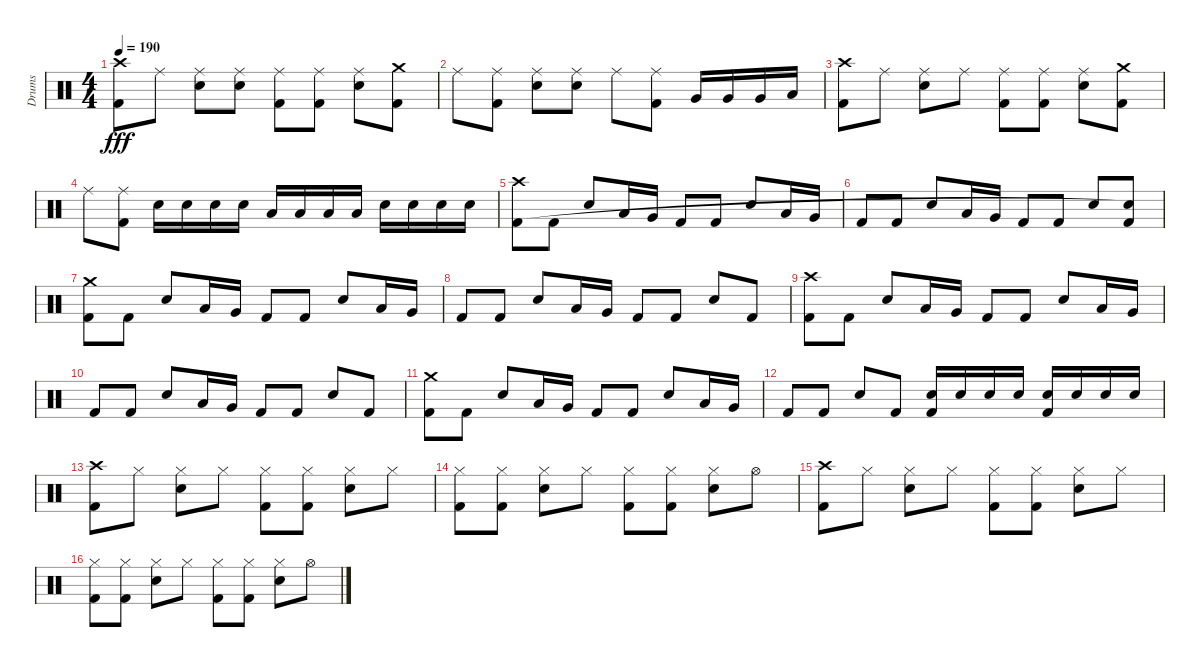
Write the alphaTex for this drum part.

\track ("Drums" "Drums") {instrument percussion}
\staff {score}
\articulation defaults
\ts (4 4)
\tempo 190
\clef neutral
\ks c
("Crash high (hit)" "Kick (hit) 2").8{dy fff} "Ride (middle)".8 ("Ride (middle)" "Electric Snare (hit)").8 ("Ride (middle)" "Electric Snare (hit)").8 ("Ride (middle)" "Kick (hit) 2").8 ("Ride (middle)" "Kick (hit) 2").8 ("Ride (middle)" "Electric Snare (hit)").8 ("Crash medium (hit)" "Kick (hit) 2").8 |
"Ride (middle)".8 ("Ride (middle)" "Kick (hit) 2").8 ("Ride (middle)" "Electric Snare (hit)").8 ("Ride (middle)" "Electric Snare (hit)").8 "Ride (middle)".8 ("Ride (middle)" "Kick (hit) 2").8 "Very Low Tom (hit)".16 "Very Low Tom (hit)".16 "Very Low Tom (hit)".16 "Low Floor Tom (hit)".16 |
("Crash high (hit)" "Kick (hit) 2").8 "Ride (middle)".8 ("Ride (middle)" "Electric Snare (hit)").8 "Ride (middle)".8 ("Ride (middle)" "Kick (hit) 2").8 ("Ride (middle)" "Kick (hit) 2").8 ("Ride (middle)" "Electric Snare (hit)").8 ("Crash medium (hit)" "Kick (hit) 2").8 |
"Ride (middle)".8 ("Ride (middle)" "Kick (hit) 2").8 "Electric Snare (hit)".16 "Electric Snare (hit)".16 "Electric Snare (hit)".16 "Electric Snare (hit)".16 "Low Tom (hit)".16 "Low Tom (hit)".16 "Low Tom (hit)".16 "Low Tom (hit)".16 "Electric Snare (hit)".16 "Electric Snare (hit)".16 "Electric Snare (hit)".16 "Electric Snare (hit)".16 |
("Crash high (hit)" "Kick (hit) 2").8 "Kick (hit) 2".8 "Electric Snare (hit)".8 "Low Tom (hit)".16 "Very Low Tom (hit)".16 "Kick (hit) 2".8 "Kick (hit) 2".8 "Electric Snare (hit)".8 "Low Tom (hit)".16 "Very Low Tom (hit)".16 |
"Kick (hit) 2".8 "Kick (hit) 2".8 "Electric Snare (hit)".8 "Low Tom (hit)".16 "Very Low Tom (hit)".16 "Kick (hit) 2".8 "Kick (hit) 2".8 "Electric Snare (hit)".8 ("Kick (hit) 2" "Snare (hit)"{t}).8 |
("Crash medium (hit)" "Kick (hit) 2").8 "Kick (hit) 2".8 "Electric Snare (hit)".8 "Low Tom (hit)".16 "Very Low Tom (hit)".16 "Kick (hit) 2".8 "Kick (hit) 2".8 "Electric Snare (hit)".8 "Low Tom (hit)".16 "Very Low Tom (hit)".16 |
"Kick (hit) 2".8 "Kick (hit) 2".8 "Electric Snare (hit)".8 "Low Tom (hit)".16 "Very Low Tom (hit)".16 "Kick (hit) 2".8 "Kick (hit) 2".8 "Electric Snare (hit)".8 "Kick (hit) 2".8 |
("Crash high (hit)" "Kick (hit) 2").8 "Kick (hit) 2".8 "Electric Snare (hit)".8 "Low Tom (hit)".16 "Very Low Tom (hit)".16 "Kick (hit) 2".8 "Kick (hit) 2".8 "Electric Snare (hit)".8 "Low Tom (hit)".16 "Very Low Tom (hit)".16 |
"Kick (hit) 2".8 "Kick (hit) 2".8 "Electric Snare (hit)".8 "Low Tom (hit)".16 "Very Low Tom (hit)".16 "Kick (hit) 2".8 "Kick (hit) 2".8 "Electric Snare (hit)".8 "Kick (hit) 2".8 |
("Crash medium (hit)" "Kick (hit) 2").8 "Kick (hit) 2".8 "Electric Snare (hit)".8 "Low Tom (hit)".16 "Very Low Tom (hit)".16 "Kick (hit) 2".8 "Kick (hit) 2".8 "Electric Snare (hit)".8 "Low Tom (hit)".16 "Very Low Tom (hit)".16 |
"Kick (hit) 2".8 "Kick (hit) 2".8 "Electric Snare (hit)".8 "Kick (hit) 2".8 ("Electric Snare (hit)" "Kick (hit) 2").16 "Electric Snare (hit)".16 "Electric Snare (hit)".16 "Electric Snare (hit)".16 ("Electric Snare (hit)" "Kick (hit) 2").16 "Electric Snare (hit)".16 "Electric Snare (hit)".16 "Electric Snare (hit)".16 |
("Crash high (hit)" "Kick (hit) 2").8 "Hi-Hat (closed)".8 ("Hi-Hat (closed)" "Electric Snare (hit)").8 "Hi-Hat (closed)".8 ("Hi-Hat (closed)" "Kick (hit) 2").8 ("Hi-Hat (closed)" "Kick (hit) 2").8 ("Hi-Hat (closed)" "Electric Snare (hit)").8 "Hi-Hat (closed)".8 |
("Hi-Hat (closed)" "Kick (hit) 2").8 ("Hi-Hat (closed)" "Kick (hit) 2").8 ("Hi-Hat (closed)" "Electric Snare (hit)").8 "Hi-Hat (closed)".8 ("Hi-Hat (closed)" "Kick (hit) 2").8 ("Hi-Hat (closed)" "Kick (hit) 2").8 ("Hi-Hat (closed)" "Electric Snare (hit)").8 "Hi-Hat (open)".8 |
("Crash high (hit)" "Kick (hit) 2").8 "Hi-Hat (closed)".8 ("Hi-Hat (closed)" "Electric Snare (hit)").8 "Hi-Hat (closed)".8 ("Hi-Hat (closed)" "Kick (hit) 2").8 ("Hi-Hat (closed)" "Kick (hit) 2").8 ("Hi-Hat (closed)" "Electric Snare (hit)").8 "Hi-Hat (closed)".8 |
("Hi-Hat (closed)" "Kick (hit) 2").8 ("Hi-Hat (closed)" "Kick (hit) 2").8 ("Hi-Hat (closed)" "Electric Snare (hit)").8 "Hi-Hat (closed)".8 ("Hi-Hat (closed)" "Kick (hit) 2").8 ("Hi-Hat (closed)" "Kick (hit) 2").8 ("Hi-Hat (closed)" "Electric Snare (hit)").8 "Hi-Hat (open)".8
